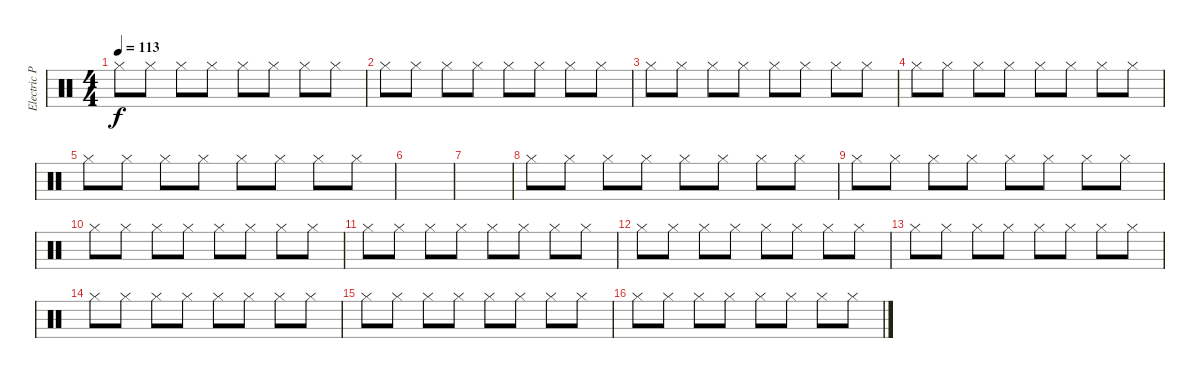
\track ("Electric Percussion" "Electric P") {instrument percussion bank 3}
\staff {score}
\articulation defaults
\ts (4 4)
\tempo 113
\clef neutral
\ks c "Hi-Hat (closed)".8{dy f} "Hi-Hat (closed)".8 "Hi-Hat (closed)".8 "Hi-Hat (closed)".8 "Hi-Hat (closed)".8 "Hi-Hat (closed)".8 "Hi-Hat (closed)".8 "Hi-Hat (closed)".8
|
"Hi-Hat (closed)".8 "Hi-Hat (closed)".8 "Hi-Hat (closed)".8 "Hi-Hat (closed)".8 "Hi-Hat (closed)".8 "Hi-Hat (closed)".8 "Hi-Hat (closed)".8 "Hi-Hat (closed)".8 |
"Hi-Hat (closed)".8 "Hi-Hat (closed)".8 "Hi-Hat (closed)".8 "Hi-Hat (closed)".8 "Hi-Hat (closed)".8 "Hi-Hat (closed)".8 "Hi-Hat (closed)".8 "Hi-Hat (closed)".8 |
"Hi-Hat (closed)".8 "Hi-Hat (closed)".8 "Hi-Hat (closed)".8 "Hi-Hat (closed)".8 "Hi-Hat (closed)".8 "Hi-Hat (closed)".8 "Hi-Hat (closed)".8 "Hi-Hat (closed)".8 |
"Hi-Hat (closed)".8 "Hi-Hat (closed)".8 "Hi-Hat (closed)".8 "Hi-Hat (closed)".8 "Hi-Hat (closed)".8 "Hi-Hat (closed)".8 "Hi-Hat (closed)".8 "Hi-Hat (closed)".8 |
|
|
"Hi-Hat (closed)".8 "Hi-Hat (closed)".8 "Hi-Hat (closed)".8 "Hi-Hat (closed)".8 "Hi-Hat (closed)".8 "Hi-Hat (closed)".8 "Hi-Hat (closed)".8 "Hi-Hat (closed)".8 |
"Hi-Hat (closed)".8 "Hi-Hat (closed)".8 "Hi-Hat (closed)".8 "Hi-Hat (closed)".8 "Hi-Hat (closed)".8 "Hi-Hat (closed)".8 "Hi-Hat (closed)".8 "Hi-Hat (closed)".8 |
"Hi-Hat (closed)".8 "Hi-Hat (closed)".8 "Hi-Hat (closed)".8 "Hi-Hat (closed)".8 "Hi-Hat (closed)".8 "Hi-Hat (closed)".8 "Hi-Hat (closed)".8 "Hi-Hat (closed)".8 |
"Hi-Hat (closed)".8 "Hi-Hat (closed)".8 "Hi-Hat (closed)".8 "Hi-Hat (closed)".8 "Hi-Hat (closed)".8 "Hi-Hat (closed)".8 "Hi-Hat (closed)".8 "Hi-Hat (closed)".8 |
"Hi-Hat (closed)".8 "Hi-Hat (closed)".8 "Hi-Hat (closed)".8 "Hi-Hat (closed)".8 "Hi-Hat (closed)".8 "Hi-Hat (closed)".8 "Hi-Hat (closed)".8 "Hi-Hat (closed)".8 |
"Hi-Hat (closed)".8 "Hi-Hat (closed)".8 "Hi-Hat (closed)".8 "Hi-Hat (closed)".8 "Hi-Hat (closed)".8 "Hi-Hat (closed)".8 "Hi-Hat (closed)".8 "Hi-Hat (closed)".8 |
"Hi-Hat (closed)".8 "Hi-Hat (closed)".8 "Hi-Hat (closed)".8 "Hi-Hat (closed)".8 "Hi-Hat (closed)".8 "Hi-Hat (closed)".8 "Hi-Hat (closed)".8 "Hi-Hat (closed)".8 |
"Hi-Hat (closed)".8 "Hi-Hat (closed)".8 "Hi-Hat (closed)".8 "Hi-Hat (closed)".8 "Hi-Hat (closed)".8 "Hi-Hat (closed)".8 "Hi-Hat (closed)".8 "Hi-Hat (closed)".8 |
"Hi-Hat (closed)".8 "Hi-Hat (closed)".8 "Hi-Hat (closed)".8 "Hi-Hat (closed)".8 "Hi-Hat (closed)".8 "Hi-Hat (closed)".8 "Hi-Hat (closed)".8 "Hi-Hat (closed)".8
